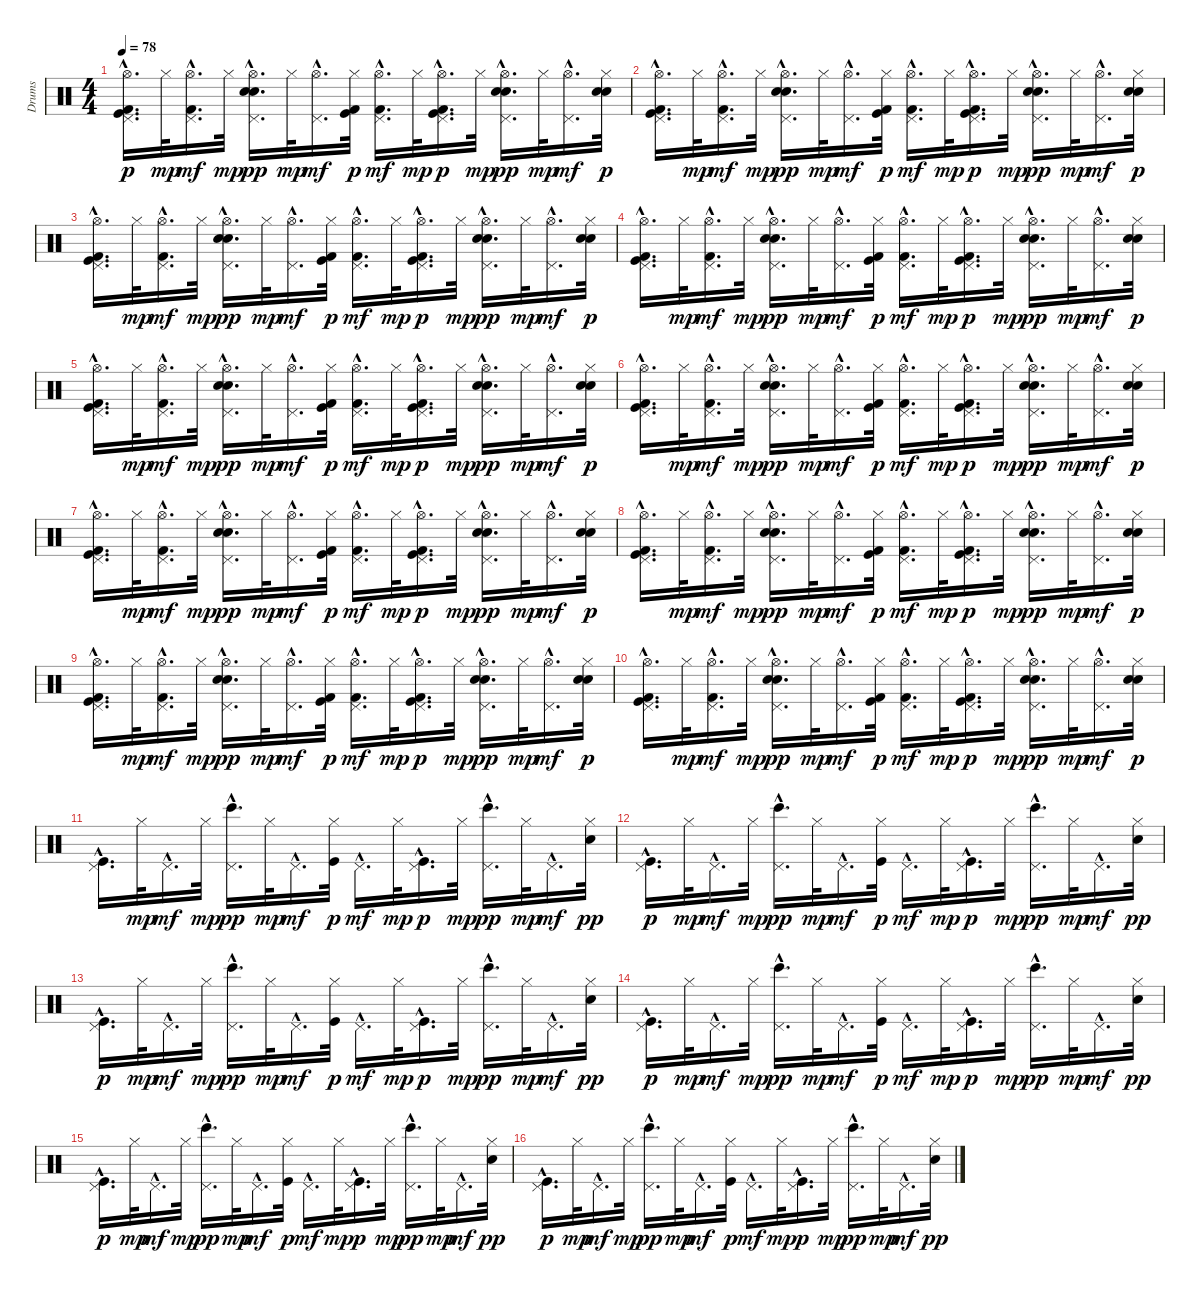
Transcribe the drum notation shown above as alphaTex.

\track ("Drums" "Drums") {instrument percussion}
\staff {score}
\articulation defaults
\ts (4 4)
\tempo 78
\clef neutral
\ks c
("Pedal Hi-Hat (hit)"{hac} "Kick (hit)"{hac} "Hi-Hat (open)"{hac} "Kick (hit) 2"{hac}).16{d dy p} "Hi-Hat (closed)".32{dy mp} ("Pedal Hi-Hat (hit)"{hac} "Hi-Hat (open)"{hac} "Kick (hit) 2"{hac}).16{d dy mf} "Hi-Hat (closed)".32{dy mp} ("Pedal Hi-Hat (hit)"{hac} "Snare (hit) 2"{hac} "Hi-Hat (open)"{hac} "Electric Snare (hit)"{hac}).16{d dy pp} "Hi-Hat (closed)".32{dy mp} ("Pedal Hi-Hat (hit)"{hac} "Hi-Hat (open)"{hac}).16{d dy mf} ("Hi-Hat (closed)" "Kick (hit)" "Kick (hit) 2").32{dy p} ("Pedal Hi-Hat (hit)"{hac} "Hi-Hat (open)"{hac} "Kick (hit) 2"{hac}).16{d dy mf} "Hi-Hat (closed)".32{dy mp} ("Pedal Hi-Hat (hit)"{hac} "Kick (hit)"{hac} "Hi-Hat (open)"{hac} "Kick (hit) 2"{hac}).16{d dy p} "Hi-Hat (closed)".32{dy mp} ("Pedal Hi-Hat (hit)"{hac} "Snare (hit) 2"{hac} "Hi-Hat (open)"{hac} "Electric Snare (hit)"{hac}).16{d dy pp} "Hi-Hat (closed)".32{dy mp} ("Pedal Hi-Hat (hit)"{hac} "Hi-Hat (open)"{hac}).16{d dy mf} ("Hi-Hat (closed)" "Snare (hit) 2" "Electric Snare (hit)").32{dy p} |
("Pedal Hi-Hat (hit)"{hac} "Kick (hit)"{hac} "Hi-Hat (open)"{hac} "Kick (hit) 2"{hac}).16{d} "Hi-Hat (closed)".32{dy mp} ("Pedal Hi-Hat (hit)"{hac} "Hi-Hat (open)"{hac} "Kick (hit) 2"{hac}).16{d dy mf} "Hi-Hat (closed)".32{dy mp} ("Pedal Hi-Hat (hit)"{hac} "Snare (hit) 2"{hac} "Hi-Hat (open)"{hac} "Electric Snare (hit)"{hac}).16{d dy pp} "Hi-Hat (closed)".32{dy mp} ("Pedal Hi-Hat (hit)"{hac} "Hi-Hat (open)"{hac}).16{d dy mf} ("Hi-Hat (closed)" "Kick (hit)" "Kick (hit) 2").32{dy p} ("Pedal Hi-Hat (hit)"{hac} "Hi-Hat (open)"{hac} "Kick (hit) 2"{hac}).16{d dy mf} "Hi-Hat (closed)".32{dy mp} ("Pedal Hi-Hat (hit)"{hac} "Kick (hit)"{hac} "Hi-Hat (open)"{hac} "Kick (hit) 2"{hac}).16{d dy p} "Hi-Hat (closed)".32{dy mp} ("Pedal Hi-Hat (hit)"{hac} "Snare (hit) 2"{hac} "Hi-Hat (open)"{hac} "Electric Snare (hit)"{hac}).16{d dy pp} "Hi-Hat (closed)".32{dy mp} ("Pedal Hi-Hat (hit)"{hac} "Hi-Hat (open)"{hac}).16{d dy mf} ("Hi-Hat (closed)" "Snare (hit) 2" "Electric Snare (hit)").32{dy p} |
("Pedal Hi-Hat (hit)"{hac} "Kick (hit)"{hac} "Hi-Hat (open)"{hac} "Kick (hit) 2"{hac}).16{d} "Hi-Hat (closed)".32{dy mp} ("Pedal Hi-Hat (hit)"{hac} "Hi-Hat (open)"{hac} "Kick (hit) 2"{hac}).16{d dy mf} "Hi-Hat (closed)".32{dy mp} ("Pedal Hi-Hat (hit)"{hac} "Snare (hit) 2"{hac} "Hi-Hat (open)"{hac} "Electric Snare (hit)"{hac}).16{d dy pp} "Hi-Hat (closed)".32{dy mp} ("Pedal Hi-Hat (hit)"{hac} "Hi-Hat (open)"{hac}).16{d dy mf} ("Hi-Hat (closed)" "Kick (hit)" "Kick (hit) 2").32{dy p} ("Pedal Hi-Hat (hit)"{hac} "Hi-Hat (open)"{hac} "Kick (hit) 2"{hac}).16{d dy mf} "Hi-Hat (closed)".32{dy mp} ("Pedal Hi-Hat (hit)"{hac} "Kick (hit)"{hac} "Hi-Hat (open)"{hac} "Kick (hit) 2"{hac}).16{d dy p} "Hi-Hat (closed)".32{dy mp} ("Pedal Hi-Hat (hit)"{hac} "Snare (hit) 2"{hac} "Hi-Hat (open)"{hac} "Electric Snare (hit)"{hac}).16{d dy pp} "Hi-Hat (closed)".32{dy mp} ("Pedal Hi-Hat (hit)"{hac} "Hi-Hat (open)"{hac}).16{d dy mf} ("Hi-Hat (closed)" "Snare (hit) 2" "Electric Snare (hit)").32{dy p} |
("Pedal Hi-Hat (hit)"{hac} "Kick (hit)"{hac} "Hi-Hat (open)"{hac} "Kick (hit) 2"{hac}).16{d} "Hi-Hat (closed)".32{dy mp} ("Pedal Hi-Hat (hit)"{hac} "Hi-Hat (open)"{hac} "Kick (hit) 2"{hac}).16{d dy mf} "Hi-Hat (closed)".32{dy mp} ("Pedal Hi-Hat (hit)"{hac} "Snare (hit) 2"{hac} "Hi-Hat (open)"{hac} "Electric Snare (hit)"{hac}).16{d dy pp} "Hi-Hat (closed)".32{dy mp} ("Pedal Hi-Hat (hit)"{hac} "Hi-Hat (open)"{hac}).16{d dy mf} ("Hi-Hat (closed)" "Kick (hit)" "Kick (hit) 2").32{dy p} ("Pedal Hi-Hat (hit)"{hac} "Hi-Hat (open)"{hac} "Kick (hit) 2"{hac}).16{d dy mf} "Hi-Hat (closed)".32{dy mp} ("Pedal Hi-Hat (hit)"{hac} "Kick (hit)"{hac} "Hi-Hat (open)"{hac} "Kick (hit) 2"{hac}).16{d dy p} "Hi-Hat (closed)".32{dy mp} ("Pedal Hi-Hat (hit)"{hac} "Snare (hit) 2"{hac} "Hi-Hat (open)"{hac} "Electric Snare (hit)"{hac}).16{d dy pp} "Hi-Hat (closed)".32{dy mp} ("Pedal Hi-Hat (hit)"{hac} "Hi-Hat (open)"{hac}).16{d dy mf} ("Hi-Hat (closed)" "Snare (hit) 2" "Electric Snare (hit)").32{dy p} |
("Pedal Hi-Hat (hit)"{hac} "Kick (hit)"{hac} "Hi-Hat (open)"{hac} "Kick (hit) 2"{hac}).16{d} "Hi-Hat (closed)".32{dy mp} ("Pedal Hi-Hat (hit)"{hac} "Hi-Hat (open)"{hac} "Kick (hit) 2"{hac}).16{d dy mf} "Hi-Hat (closed)".32{dy mp} ("Pedal Hi-Hat (hit)"{hac} "Snare (hit) 2"{hac} "Hi-Hat (open)"{hac} "Electric Snare (hit)"{hac}).16{d dy pp} "Hi-Hat (closed)".32{dy mp} ("Pedal Hi-Hat (hit)"{hac} "Hi-Hat (open)"{hac}).16{d dy mf} ("Hi-Hat (closed)" "Kick (hit)" "Kick (hit) 2").32{dy p} ("Pedal Hi-Hat (hit)"{hac} "Hi-Hat (open)"{hac} "Kick (hit) 2"{hac}).16{d dy mf} "Hi-Hat (closed)".32{dy mp} ("Pedal Hi-Hat (hit)"{hac} "Kick (hit)"{hac} "Hi-Hat (open)"{hac} "Kick (hit) 2"{hac}).16{d dy p} "Hi-Hat (closed)".32{dy mp} ("Pedal Hi-Hat (hit)"{hac} "Snare (hit) 2"{hac} "Hi-Hat (open)"{hac} "Electric Snare (hit)"{hac}).16{d dy pp} "Hi-Hat (closed)".32{dy mp} ("Pedal Hi-Hat (hit)"{hac} "Hi-Hat (open)"{hac}).16{d dy mf} ("Hi-Hat (closed)" "Snare (hit) 2" "Electric Snare (hit)").32{dy p} |
("Pedal Hi-Hat (hit)"{hac} "Kick (hit)"{hac} "Hi-Hat (open)"{hac} "Kick (hit) 2"{hac}).16{d} "Hi-Hat (closed)".32{dy mp} ("Pedal Hi-Hat (hit)"{hac} "Hi-Hat (open)"{hac} "Kick (hit) 2"{hac}).16{d dy mf} "Hi-Hat (closed)".32{dy mp} ("Pedal Hi-Hat (hit)"{hac} "Snare (hit) 2"{hac} "Hi-Hat (open)"{hac} "Electric Snare (hit)"{hac}).16{d dy pp} "Hi-Hat (closed)".32{dy mp} ("Pedal Hi-Hat (hit)"{hac} "Hi-Hat (open)"{hac}).16{d dy mf} ("Hi-Hat (closed)" "Kick (hit)" "Kick (hit) 2").32{dy p} ("Pedal Hi-Hat (hit)"{hac} "Hi-Hat (open)"{hac} "Kick (hit) 2"{hac}).16{d dy mf} "Hi-Hat (closed)".32{dy mp} ("Pedal Hi-Hat (hit)"{hac} "Kick (hit)"{hac} "Hi-Hat (open)"{hac} "Kick (hit) 2"{hac}).16{d dy p} "Hi-Hat (closed)".32{dy mp} ("Pedal Hi-Hat (hit)"{hac} "Snare (hit) 2"{hac} "Hi-Hat (open)"{hac} "Electric Snare (hit)"{hac}).16{d dy pp} "Hi-Hat (closed)".32{dy mp} ("Pedal Hi-Hat (hit)"{hac} "Hi-Hat (open)"{hac}).16{d dy mf} ("Hi-Hat (closed)" "Snare (hit) 2" "Electric Snare (hit)").32{dy p} |
("Pedal Hi-Hat (hit)"{hac} "Kick (hit)"{hac} "Hi-Hat (open)"{hac} "Kick (hit) 2"{hac}).16{d} "Hi-Hat (closed)".32{dy mp} ("Pedal Hi-Hat (hit)"{hac} "Hi-Hat (open)"{hac} "Kick (hit) 2"{hac}).16{d dy mf} "Hi-Hat (closed)".32{dy mp} ("Pedal Hi-Hat (hit)"{hac} "Snare (hit) 2"{hac} "Hi-Hat (open)"{hac} "Electric Snare (hit)"{hac}).16{d dy pp} "Hi-Hat (closed)".32{dy mp} ("Pedal Hi-Hat (hit)"{hac} "Hi-Hat (open)"{hac}).16{d dy mf} ("Hi-Hat (closed)" "Kick (hit)" "Kick (hit) 2").32{dy p} ("Pedal Hi-Hat (hit)"{hac} "Hi-Hat (open)"{hac} "Kick (hit) 2"{hac}).16{d dy mf} "Hi-Hat (closed)".32{dy mp} ("Pedal Hi-Hat (hit)"{hac} "Kick (hit)"{hac} "Hi-Hat (open)"{hac} "Kick (hit) 2"{hac}).16{d dy p} "Hi-Hat (closed)".32{dy mp} ("Pedal Hi-Hat (hit)"{hac} "Snare (hit) 2"{hac} "Hi-Hat (open)"{hac} "Electric Snare (hit)"{hac}).16{d dy pp} "Hi-Hat (closed)".32{dy mp} ("Pedal Hi-Hat (hit)"{hac} "Hi-Hat (open)"{hac}).16{d dy mf} ("Hi-Hat (closed)" "Snare (hit) 2" "Electric Snare (hit)").32{dy p} |
("Pedal Hi-Hat (hit)"{hac} "Kick (hit)"{hac} "Hi-Hat (open)"{hac} "Kick (hit) 2"{hac}).16{d} "Hi-Hat (closed)".32{dy mp} ("Pedal Hi-Hat (hit)"{hac} "Hi-Hat (open)"{hac} "Kick (hit) 2"{hac}).16{d dy mf} "Hi-Hat (closed)".32{dy mp} ("Pedal Hi-Hat (hit)"{hac} "Snare (hit) 2"{hac} "Hi-Hat (open)"{hac} "Electric Snare (hit)"{hac}).16{d dy pp} "Hi-Hat (closed)".32{dy mp} ("Pedal Hi-Hat (hit)"{hac} "Hi-Hat (open)"{hac}).16{d dy mf} ("Hi-Hat (closed)" "Kick (hit)" "Kick (hit) 2").32{dy p} ("Pedal Hi-Hat (hit)"{hac} "Hi-Hat (open)"{hac} "Kick (hit) 2"{hac}).16{d dy mf} "Hi-Hat (closed)".32{dy mp} ("Pedal Hi-Hat (hit)"{hac} "Kick (hit)"{hac} "Hi-Hat (open)"{hac} "Kick (hit) 2"{hac}).16{d dy p} "Hi-Hat (closed)".32{dy mp} ("Pedal Hi-Hat (hit)"{hac} "Snare (hit) 2"{hac} "Hi-Hat (open)"{hac} "Electric Snare (hit)"{hac}).16{d dy pp} "Hi-Hat (closed)".32{dy mp} ("Pedal Hi-Hat (hit)"{hac} "Hi-Hat (open)"{hac}).16{d dy mf} ("Hi-Hat (closed)" "Snare (hit) 2" "Electric Snare (hit)").32{dy p} |
("Pedal Hi-Hat (hit)"{hac} "Kick (hit)"{hac} "Hi-Hat (open)"{hac} "Kick (hit) 2"{hac}).16{d} "Hi-Hat (closed)".32{dy mp} ("Pedal Hi-Hat (hit)"{hac} "Hi-Hat (open)"{hac} "Kick (hit) 2"{hac}).16{d dy mf} "Hi-Hat (closed)".32{dy mp} ("Pedal Hi-Hat (hit)"{hac} "Snare (hit) 2"{hac} "Hi-Hat (open)"{hac} "Electric Snare (hit)"{hac}).16{d dy pp} "Hi-Hat (closed)".32{dy mp} ("Pedal Hi-Hat (hit)"{hac} "Hi-Hat (open)"{hac}).16{d dy mf} ("Hi-Hat (closed)" "Kick (hit)" "Kick (hit) 2").32{dy p} ("Pedal Hi-Hat (hit)"{hac} "Hi-Hat (open)"{hac} "Kick (hit) 2"{hac}).16{d dy mf} "Hi-Hat (closed)".32{dy mp} ("Pedal Hi-Hat (hit)"{hac} "Kick (hit)"{hac} "Hi-Hat (open)"{hac} "Kick (hit) 2"{hac}).16{d dy p} "Hi-Hat (closed)".32{dy mp} ("Pedal Hi-Hat (hit)"{hac} "Snare (hit) 2"{hac} "Hi-Hat (open)"{hac} "Electric Snare (hit)"{hac}).16{d dy pp} "Hi-Hat (closed)".32{dy mp} ("Pedal Hi-Hat (hit)"{hac} "Hi-Hat (open)"{hac}).16{d dy mf} ("Hi-Hat (closed)" "Snare (hit) 2" "Electric Snare (hit)").32{dy p} |
("Pedal Hi-Hat (hit)"{hac} "Kick (hit)"{hac} "Hi-Hat (open)"{hac} "Kick (hit) 2"{hac}).16{d} "Hi-Hat (closed)".32{dy mp} ("Pedal Hi-Hat (hit)"{hac} "Hi-Hat (open)"{hac} "Kick (hit) 2"{hac}).16{d dy mf} "Hi-Hat (closed)".32{dy mp} ("Pedal Hi-Hat (hit)"{hac} "Snare (hit) 2"{hac} "Hi-Hat (open)"{hac} "Electric Snare (hit)"{hac}).16{d dy pp} "Hi-Hat (closed)".32{dy mp} ("Pedal Hi-Hat (hit)"{hac} "Hi-Hat (open)"{hac}).16{d dy mf} ("Hi-Hat (closed)" "Kick (hit)" "Kick (hit) 2").32{dy p} ("Pedal Hi-Hat (hit)"{hac} "Hi-Hat (open)"{hac} "Kick (hit) 2"{hac}).16{d dy mf} "Hi-Hat (closed)".32{dy mp} ("Pedal Hi-Hat (hit)"{hac} "Kick (hit)"{hac} "Hi-Hat (open)"{hac} "Kick (hit) 2"{hac}).16{d dy p} "Hi-Hat (closed)".32{dy mp} ("Pedal Hi-Hat (hit)"{hac} "Snare (hit) 2"{hac} "Hi-Hat (open)"{hac} "Electric Snare (hit)"{hac}).16{d dy pp} "Hi-Hat (closed)".32{dy mp} ("Pedal Hi-Hat (hit)"{hac} "Hi-Hat (open)"{hac}).16{d dy mf} ("Hi-Hat (closed)" "Snare (hit) 2" "Electric Snare (hit)").32{dy p} |
("Pedal Hi-Hat (hit)"{hac} "Kick (hit)"{hac}).16{d} "Hi-Hat (closed)".32{dy mp} "Pedal Hi-Hat (hit)"{hac}.16{d dy mf} "Hi-Hat (closed)".32{dy mp} ("Pedal Hi-Hat (hit)"{hac} "Bongo High (hit)"{hac}).16{d dy pp} "Hi-Hat (closed)".32{dy mp} "Pedal Hi-Hat (hit)"{hac}.16{d dy mf} ("Hi-Hat (closed)" "Kick (hit)").32{dy p} "Pedal Hi-Hat (hit)"{hac}.16{d dy mf} "Hi-Hat (closed)".32{dy mp} ("Pedal Hi-Hat (hit)"{hac} "Kick (hit)"{hac}).16{d dy p} "Hi-Hat (closed)".32{dy mp} ("Pedal Hi-Hat (hit)"{hac} "Bongo High (hit)"{hac}).16{d dy pp} "Hi-Hat (closed)".32{dy mp} "Pedal Hi-Hat (hit)"{hac}.16{d dy mf} ("Hi-Hat (closed)" "Snare (hit) 2").32{dy pp} |
("Pedal Hi-Hat (hit)"{hac} "Kick (hit)"{hac}).16{d dy p} "Hi-Hat (closed)".32{dy mp} "Pedal Hi-Hat (hit)"{hac}.16{d dy mf} "Hi-Hat (closed)".32{dy mp} ("Pedal Hi-Hat (hit)"{hac} "Bongo High (hit)"{hac}).16{d dy pp} "Hi-Hat (closed)".32{dy mp} "Pedal Hi-Hat (hit)"{hac}.16{d dy mf} ("Hi-Hat (closed)" "Kick (hit)").32{dy p} "Pedal Hi-Hat (hit)"{hac}.16{d dy mf} "Hi-Hat (closed)".32{dy mp} ("Pedal Hi-Hat (hit)"{hac} "Kick (hit)"{hac}).16{d dy p} "Hi-Hat (closed)".32{dy mp} ("Pedal Hi-Hat (hit)"{hac} "Bongo High (hit)"{hac}).16{d dy pp} "Hi-Hat (closed)".32{dy mp} "Pedal Hi-Hat (hit)"{hac}.16{d dy mf} ("Hi-Hat (closed)" "Snare (hit) 2").32{dy pp} |
("Pedal Hi-Hat (hit)"{hac} "Kick (hit)"{hac}).16{d dy p} "Hi-Hat (closed)".32{dy mp} "Pedal Hi-Hat (hit)"{hac}.16{d dy mf} "Hi-Hat (closed)".32{dy mp} ("Pedal Hi-Hat (hit)"{hac} "Bongo High (hit)"{hac}).16{d dy pp} "Hi-Hat (closed)".32{dy mp} "Pedal Hi-Hat (hit)"{hac}.16{d dy mf} ("Hi-Hat (closed)" "Kick (hit)").32{dy p} "Pedal Hi-Hat (hit)"{hac}.16{d dy mf} "Hi-Hat (closed)".32{dy mp} ("Pedal Hi-Hat (hit)"{hac} "Kick (hit)"{hac}).16{d dy p} "Hi-Hat (closed)".32{dy mp} ("Pedal Hi-Hat (hit)"{hac} "Bongo High (hit)"{hac}).16{d dy pp} "Hi-Hat (closed)".32{dy mp} "Pedal Hi-Hat (hit)"{hac}.16{d dy mf} ("Hi-Hat (closed)" "Snare (hit) 2").32{dy pp} |
("Pedal Hi-Hat (hit)"{hac} "Kick (hit)"{hac}).16{d dy p} "Hi-Hat (closed)".32{dy mp} "Pedal Hi-Hat (hit)"{hac}.16{d dy mf} "Hi-Hat (closed)".32{dy mp} ("Pedal Hi-Hat (hit)"{hac} "Bongo High (hit)"{hac}).16{d dy pp} "Hi-Hat (closed)".32{dy mp} "Pedal Hi-Hat (hit)"{hac}.16{d dy mf} ("Hi-Hat (closed)" "Kick (hit)").32{dy p} "Pedal Hi-Hat (hit)"{hac}.16{d dy mf} "Hi-Hat (closed)".32{dy mp} ("Pedal Hi-Hat (hit)"{hac} "Kick (hit)"{hac}).16{d dy p} "Hi-Hat (closed)".32{dy mp} ("Pedal Hi-Hat (hit)"{hac} "Bongo High (hit)"{hac}).16{d dy pp} "Hi-Hat (closed)".32{dy mp} "Pedal Hi-Hat (hit)"{hac}.16{d dy mf} ("Hi-Hat (closed)" "Snare (hit) 2").32{dy pp} |
("Pedal Hi-Hat (hit)"{hac} "Kick (hit)"{hac}).16{d dy p} "Hi-Hat (closed)".32{dy mp} "Pedal Hi-Hat (hit)"{hac}.16{d dy mf} "Hi-Hat (closed)".32{dy mp} ("Pedal Hi-Hat (hit)"{hac} "Bongo High (hit)"{hac}).16{d dy pp} "Hi-Hat (closed)".32{dy mp} "Pedal Hi-Hat (hit)"{hac}.16{d dy mf} ("Hi-Hat (closed)" "Kick (hit)").32{dy p} "Pedal Hi-Hat (hit)"{hac}.16{d dy mf} "Hi-Hat (closed)".32{dy mp} ("Pedal Hi-Hat (hit)"{hac} "Kick (hit)"{hac}).16{d dy p} "Hi-Hat (closed)".32{dy mp} ("Pedal Hi-Hat (hit)"{hac} "Bongo High (hit)"{hac}).16{d dy pp} "Hi-Hat (closed)".32{dy mp} "Pedal Hi-Hat (hit)"{hac}.16{d dy mf} ("Hi-Hat (closed)" "Snare (hit) 2").32{dy pp} |
("Pedal Hi-Hat (hit)"{hac} "Kick (hit)"{hac}).16{d dy p} "Hi-Hat (closed)".32{dy mp} "Pedal Hi-Hat (hit)"{hac}.16{d dy mf} "Hi-Hat (closed)".32{dy mp} ("Pedal Hi-Hat (hit)"{hac} "Bongo High (hit)"{hac}).16{d dy pp} "Hi-Hat (closed)".32{dy mp} "Pedal Hi-Hat (hit)"{hac}.16{d dy mf} ("Hi-Hat (closed)" "Kick (hit)").32{dy p} "Pedal Hi-Hat (hit)"{hac}.16{d dy mf} "Hi-Hat (closed)".32{dy mp} ("Pedal Hi-Hat (hit)"{hac} "Kick (hit)"{hac}).16{d dy p} "Hi-Hat (closed)".32{dy mp} ("Pedal Hi-Hat (hit)"{hac} "Bongo High (hit)"{hac}).16{d dy pp} "Hi-Hat (closed)".32{dy mp} "Pedal Hi-Hat (hit)"{hac}.16{d dy mf} ("Hi-Hat (closed)" "Snare (hit) 2").32{dy pp}
